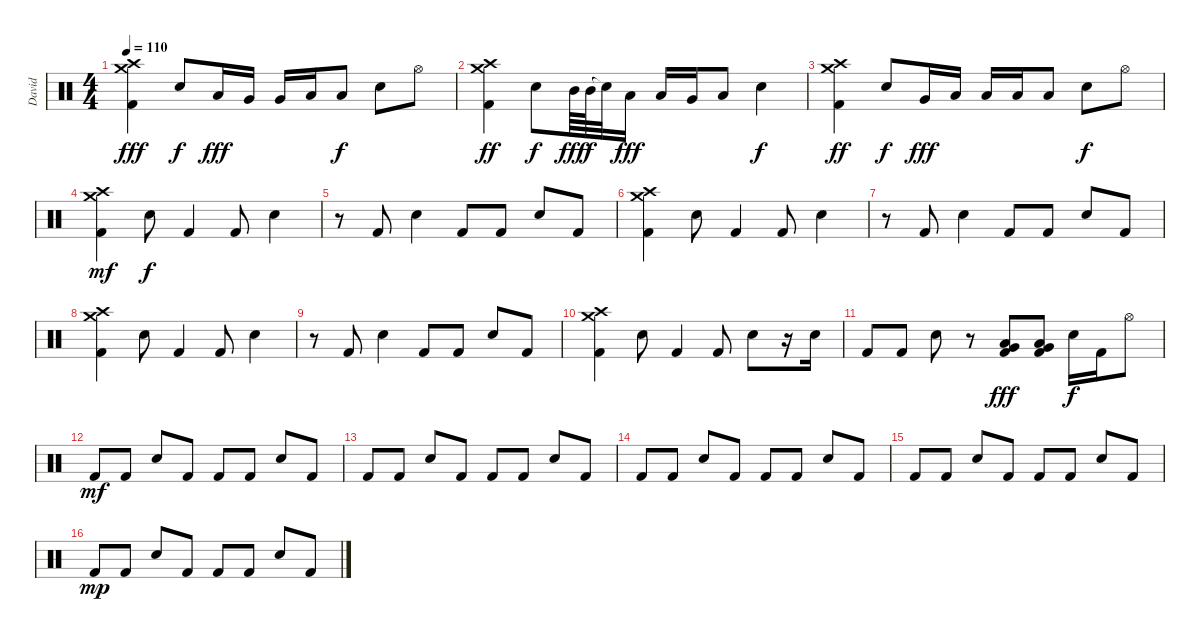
\track ("David" "David") {instrument percussion}
\staff {score}
\articulation defaults
\ts (4 4)
\tempo 110
\clef neutral
\ks c
("Crash medium (hit)" "Crash high (hit)" "Kick (hit) 2").4{dy fff} "Snare (hit) 2".8{dy f} "Low Tom (hit)".16{dy fff} "Very Low Tom (hit)".16 "Very Low Tom (hit)".16 "Low Floor Tom (hit)".16 "Low Floor Tom (hit)".8{dy f} "Snare (hit) 2".8 "Hi-Hat (open)".8 |
("Crash medium (hit)" "Crash high (hit)" "Kick (hit) 2").4{dy ff} "Snare (hit) 2".8{dy f} "Mid Tom (hit)".64{dy fff} "Mid Tom (hit)".64{dy f} "Snare (hit)"{t}.32 "Low Tom (hit)".16{dy fff} "Low Tom (hit)".16 "Very Low Tom (hit)".16 "Low Floor Tom (hit)".8 "Snare (hit) 2".4{dy f} |
("Crash medium (hit)" "Crash high (hit)" "Kick (hit) 2").4{dy ff} "Snare (hit) 2".8{dy f} "Very Low Tom (hit)".16{dy fff} "Low Floor Tom (hit)".16 "Low Floor Tom (hit)".16 "Low Floor Tom (hit)".16 "Low Floor Tom (hit)".8 "Snare (hit) 2".8{dy f} "Hi-Hat (open)".8 |
("Crash medium (hit)" "Crash high (hit)" "Kick (hit) 2").4{dy mf} "Snare (hit) 2".8{dy f} "Kick (hit) 2".4 "Kick (hit) 2".8 "Snare (hit) 2".4 |
r.8 "Kick (hit) 2".8 "Snare (hit) 2".4 "Kick (hit) 2".8 "Kick (hit) 2".8 "Snare (hit) 2".8 "Kick (hit) 2".8 |
("Crash medium (hit)" "Crash high (hit)" "Kick (hit) 2").4 "Snare (hit) 2".8 "Kick (hit) 2".4 "Kick (hit) 2".8 "Snare (hit) 2".4 |
r.8 "Kick (hit) 2".8 "Snare (hit) 2".4 "Kick (hit) 2".8 "Kick (hit) 2".8 "Snare (hit) 2".8 "Kick (hit) 2".8 |
("Crash medium (hit)" "Crash high (hit)" "Kick (hit) 2").4 "Snare (hit) 2".8 "Kick (hit) 2".4 "Kick (hit) 2".8 "Snare (hit) 2".4 |
r.8 "Kick (hit) 2".8 "Snare (hit) 2".4 "Kick (hit) 2".8 "Kick (hit) 2".8 "Snare (hit) 2".8 "Kick (hit) 2".8 |
("Crash medium (hit)" "Crash high (hit)" "Kick (hit) 2").4 "Snare (hit) 2".8 "Kick (hit) 2".4 "Kick (hit) 2".8 "Snare (hit) 2".8 r.16 "Snare (hit) 2".16 |
"Kick (hit) 2".8 "Kick (hit) 2".8 "Snare (hit) 2".8 r.8 ("Kick (hit) 2" "Very Low Tom (hit)" "Low Floor Tom (hit)").8{dy fff} ("Kick (hit) 2" "Very Low Tom (hit)" "Low Floor Tom (hit)").8 "Snare (hit) 2".16{dy f} "Kick (hit) 2".16 "Hi-Hat (open)".8 |
"Kick (hit) 2".8{dy mf} "Kick (hit) 2".8 "Snare (hit) 2".8 "Kick (hit) 2".8 "Kick (hit) 2".8 "Kick (hit) 2".8 "Snare (hit) 2".8 "Kick (hit) 2".8 |
"Kick (hit) 2".8 "Kick (hit) 2".8 "Snare (hit) 2".8 "Kick (hit) 2".8 "Kick (hit) 2".8 "Kick (hit) 2".8 "Snare (hit) 2".8 "Kick (hit) 2".8 |
"Kick (hit) 2".8 "Kick (hit) 2".8 "Snare (hit) 2".8 "Kick (hit) 2".8 "Kick (hit) 2".8 "Kick (hit) 2".8 "Snare (hit) 2".8 "Kick (hit) 2".8 |
"Kick (hit) 2".8 "Kick (hit) 2".8 "Snare (hit) 2".8 "Kick (hit) 2".8 "Kick (hit) 2".8 "Kick (hit) 2".8 "Snare (hit) 2".8 "Kick (hit) 2".8 |
"Kick (hit) 2".8{dy mp} "Kick (hit) 2".8 "Snare (hit) 2".8 "Kick (hit) 2".8 "Kick (hit) 2".8 "Kick (hit) 2".8 "Snare (hit) 2".8 "Kick (hit) 2".8
